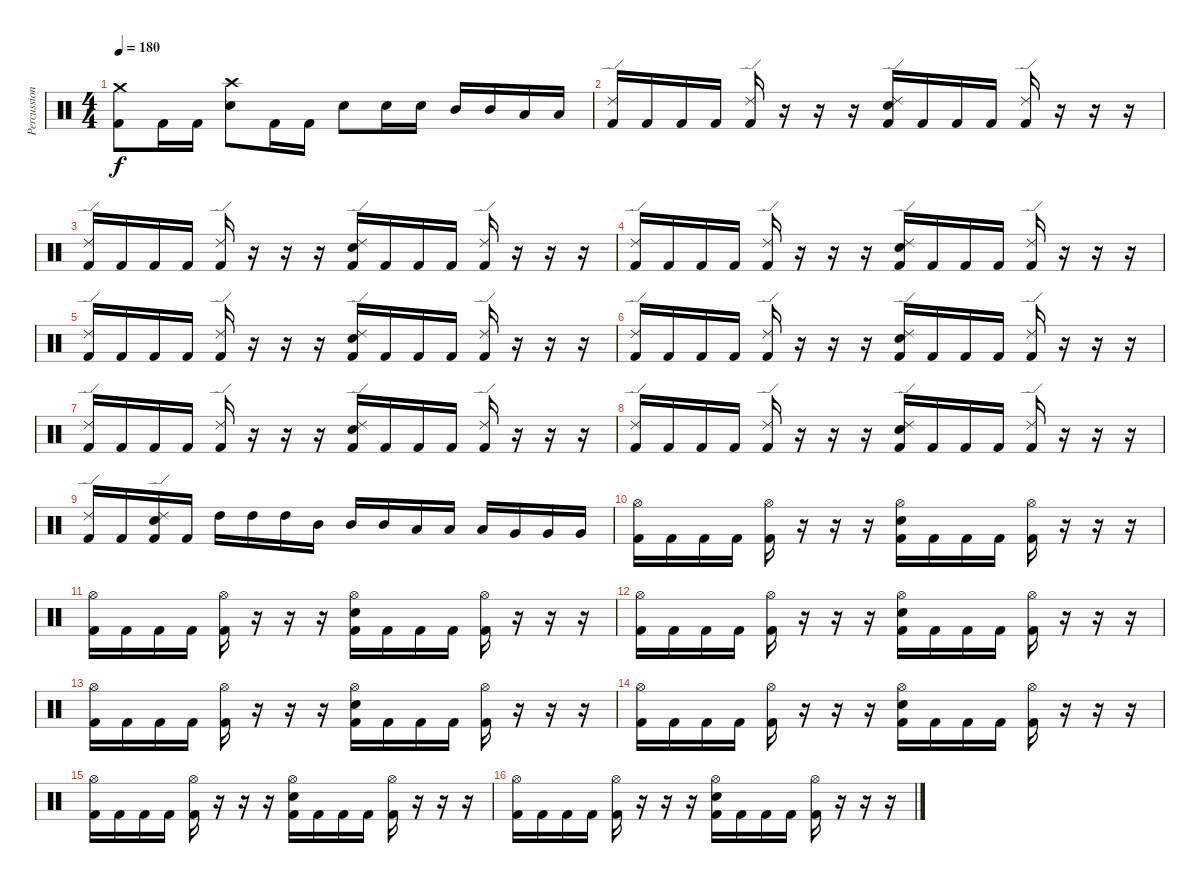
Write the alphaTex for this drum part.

\track ("Percussion" "Percussion") {instrument percussion}
\staff {score}
\articulation defaults
\ts (4 4)
\tempo 180
\clef neutral
\ks c
("Kick (hit) 2" "Crash medium (hit)").8{dy f} "Kick (hit) 2".16 "Kick (hit) 2".16 ("Electric Snare (hit)" "Crash high (hit)").8 "Kick (hit) 2".16 "Kick (hit) 2".16 "Electric Snare (hit)".8 "Electric Snare (hit)".16 "Electric Snare (hit)".16 "Mid Tom (hit)".16 "Mid Tom (hit)".16 "Low Tom (hit)".16 "Low Tom (hit)".16 |
("Kick (hit) 2" "Ride (edge) 2").16 "Kick (hit) 2".16 "Kick (hit) 2".16 "Kick (hit) 2".16 ("Kick (hit) 2" "Ride (edge) 2").16 r.16 r.16 r.16 ("Kick (hit) 2" "Electric Snare (hit)" "Ride (edge) 2").16 "Kick (hit) 2".16 "Kick (hit) 2".16 "Kick (hit) 2".16 ("Kick (hit) 2" "Ride (edge) 2").16 r.16 r.16 r.16 |
("Kick (hit) 2" "Ride (edge) 2").16 "Kick (hit) 2".16 "Kick (hit) 2".16 "Kick (hit) 2".16 ("Kick (hit) 2" "Ride (edge) 2").16 r.16 r.16 r.16 ("Kick (hit) 2" "Electric Snare (hit)" "Ride (edge) 2").16 "Kick (hit) 2".16 "Kick (hit) 2".16 "Kick (hit) 2".16 ("Kick (hit) 2" "Ride (edge) 2").16 r.16 r.16 r.16 |
("Kick (hit) 2" "Ride (edge) 2").16 "Kick (hit) 2".16 "Kick (hit) 2".16 "Kick (hit) 2".16 ("Kick (hit) 2" "Ride (edge) 2").16 r.16 r.16 r.16 ("Kick (hit) 2" "Electric Snare (hit)" "Ride (edge) 2").16 "Kick (hit) 2".16 "Kick (hit) 2".16 "Kick (hit) 2".16 ("Kick (hit) 2" "Ride (edge) 2").16 r.16 r.16 r.16 |
("Kick (hit) 2" "Ride (edge) 2").16 "Kick (hit) 2".16 "Kick (hit) 2".16 "Kick (hit) 2".16 ("Kick (hit) 2" "Ride (edge) 2").16 r.16 r.16 r.16 ("Kick (hit) 2" "Electric Snare (hit)" "Ride (edge) 2").16 "Kick (hit) 2".16 "Kick (hit) 2".16 "Kick (hit) 2".16 ("Kick (hit) 2" "Ride (edge) 2").16 r.16 r.16 r.16 |
("Kick (hit) 2" "Ride (edge) 2").16 "Kick (hit) 2".16 "Kick (hit) 2".16 "Kick (hit) 2".16 ("Kick (hit) 2" "Ride (edge) 2").16 r.16 r.16 r.16 ("Kick (hit) 2" "Electric Snare (hit)" "Ride (edge) 2").16 "Kick (hit) 2".16 "Kick (hit) 2".16 "Kick (hit) 2".16 ("Kick (hit) 2" "Ride (edge) 2").16 r.16 r.16 r.16 |
("Kick (hit) 2" "Ride (edge) 2").16 "Kick (hit) 2".16 "Kick (hit) 2".16 "Kick (hit) 2".16 ("Kick (hit) 2" "Ride (edge) 2").16 r.16 r.16 r.16 ("Kick (hit) 2" "Electric Snare (hit)" "Ride (edge) 2").16 "Kick (hit) 2".16 "Kick (hit) 2".16 "Kick (hit) 2".16 ("Kick (hit) 2" "Ride (edge) 2").16 r.16 r.16 r.16 |
("Kick (hit) 2" "Ride (edge) 2").16 "Kick (hit) 2".16 "Kick (hit) 2".16 "Kick (hit) 2".16 ("Kick (hit) 2" "Ride (edge) 2").16 r.16 r.16 r.16 ("Kick (hit) 2" "Electric Snare (hit)" "Ride (edge) 2").16 "Kick (hit) 2".16 "Kick (hit) 2".16 "Kick (hit) 2".16 ("Kick (hit) 2" "Ride (edge) 2").16 r.16 r.16 r.16 |
("Kick (hit) 2" "Ride (edge) 2").16 "Kick (hit) 2".16 ("Kick (hit) 2" "Electric Snare (hit)" "Ride (edge) 2").16 "Kick (hit) 2".16 "High Tom (hit)".16 "High Tom (hit)".16 "High Tom (hit)".16 "Mid Tom (hit)".16 "Mid Tom (hit)".16 "Mid Tom (hit)".16 "Low Tom (hit)".16 "Low Tom (hit)".16 "Low Tom (hit)".16 "Very Low Tom (hit)".16 "Very Low Tom (hit)".16 "Very Low Tom (hit)".16 |
("Kick (hit) 2" "Hi-Hat (open)").16 "Kick (hit) 2".16 "Kick (hit) 2".16 "Kick (hit) 2".16 ("Kick (hit) 2" "Hi-Hat (open)").16 r.16 r.16 r.16 ("Kick (hit) 2" "Electric Snare (hit)" "Hi-Hat (open)").16 "Kick (hit) 2".16 "Kick (hit) 2".16 "Kick (hit) 2".16 ("Kick (hit) 2" "Hi-Hat (open)").16 r.16 r.16 r.16 |
("Kick (hit) 2" "Hi-Hat (open)").16 "Kick (hit) 2".16 "Kick (hit) 2".16 "Kick (hit) 2".16 ("Kick (hit) 2" "Hi-Hat (open)").16 r.16 r.16 r.16 ("Kick (hit) 2" "Electric Snare (hit)" "Hi-Hat (open)").16 "Kick (hit) 2".16 "Kick (hit) 2".16 "Kick (hit) 2".16 ("Kick (hit) 2" "Hi-Hat (open)").16 r.16 r.16 r.16 |
("Kick (hit) 2" "Hi-Hat (open)").16 "Kick (hit) 2".16 "Kick (hit) 2".16 "Kick (hit) 2".16 ("Kick (hit) 2" "Hi-Hat (open)").16 r.16 r.16 r.16 ("Kick (hit) 2" "Electric Snare (hit)" "Hi-Hat (open)").16 "Kick (hit) 2".16 "Kick (hit) 2".16 "Kick (hit) 2".16 ("Kick (hit) 2" "Hi-Hat (open)").16 r.16 r.16 r.16 |
("Kick (hit) 2" "Hi-Hat (open)").16 "Kick (hit) 2".16 "Kick (hit) 2".16 "Kick (hit) 2".16 ("Kick (hit) 2" "Hi-Hat (open)").16 r.16 r.16 r.16 ("Kick (hit) 2" "Electric Snare (hit)" "Hi-Hat (open)").16 "Kick (hit) 2".16 "Kick (hit) 2".16 "Kick (hit) 2".16 ("Kick (hit) 2" "Hi-Hat (open)").16 r.16 r.16 r.16 |
("Kick (hit) 2" "Hi-Hat (open)").16 "Kick (hit) 2".16 "Kick (hit) 2".16 "Kick (hit) 2".16 ("Kick (hit) 2" "Hi-Hat (open)").16 r.16 r.16 r.16 ("Kick (hit) 2" "Electric Snare (hit)" "Hi-Hat (open)").16 "Kick (hit) 2".16 "Kick (hit) 2".16 "Kick (hit) 2".16 ("Kick (hit) 2" "Hi-Hat (open)").16 r.16 r.16 r.16 |
("Kick (hit) 2" "Hi-Hat (open)").16 "Kick (hit) 2".16 "Kick (hit) 2".16 "Kick (hit) 2".16 ("Kick (hit) 2" "Hi-Hat (open)").16 r.16 r.16 r.16 ("Kick (hit) 2" "Electric Snare (hit)" "Hi-Hat (open)").16 "Kick (hit) 2".16 "Kick (hit) 2".16 "Kick (hit) 2".16 ("Kick (hit) 2" "Hi-Hat (open)").16 r.16 r.16 r.16 |
("Kick (hit) 2" "Hi-Hat (open)").16 "Kick (hit) 2".16 "Kick (hit) 2".16 "Kick (hit) 2".16 ("Kick (hit) 2" "Hi-Hat (open)").16 r.16 r.16 r.16 ("Kick (hit) 2" "Electric Snare (hit)" "Hi-Hat (open)").16 "Kick (hit) 2".16 "Kick (hit) 2".16 "Kick (hit) 2".16 ("Kick (hit) 2" "Hi-Hat (open)").16 r.16 r.16 r.16
